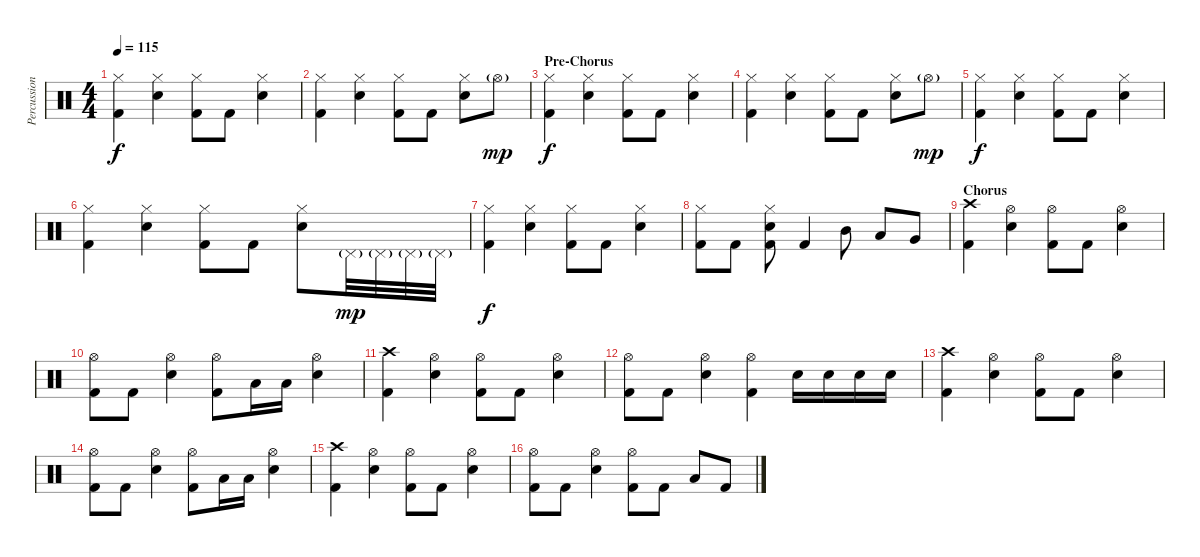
\track ("Percussion" "Percussion") {instrument percussion}
\staff {score}
\articulation defaults
\ts (4 4)
\tempo 115
\clef neutral
\ks c
("Hi-Hat (closed)" "Kick (hit) 2").4{dy f} ("Hi-Hat (closed)" "Snare (hit) 2").4 ("Hi-Hat (closed)" "Kick (hit) 2").8 "Kick (hit) 2".8 ("Hi-Hat (closed)" "Snare (hit) 2").4 |
("Hi-Hat (closed)" "Kick (hit) 2").4 ("Hi-Hat (closed)" "Snare (hit) 2").4 ("Hi-Hat (closed)" "Kick (hit) 2").8 "Kick (hit) 2".8 ("Hi-Hat (closed)" "Snare (hit) 2").8 "Hi-Hat (open)"{g}.8{dy mp} |
\section ("" "Pre-Chorus")
("Hi-Hat (closed)" "Kick (hit) 2").4{dy f} ("Hi-Hat (closed)" "Snare (hit) 2").4 ("Hi-Hat (closed)" "Kick (hit) 2").8 "Kick (hit) 2".8 ("Hi-Hat (closed)" "Snare (hit) 2").4 |
("Hi-Hat (closed)" "Kick (hit) 2").4 ("Hi-Hat (closed)" "Snare (hit) 2").4 ("Hi-Hat (closed)" "Kick (hit) 2").8 "Kick (hit) 2".8 ("Hi-Hat (closed)" "Snare (hit) 2").8 "Hi-Hat (open)"{g}.8{dy mp} |
("Hi-Hat (closed)" "Kick (hit) 2").4{dy f} ("Hi-Hat (closed)" "Snare (hit) 2").4 ("Hi-Hat (closed)" "Kick (hit) 2").8 "Kick (hit) 2".8 ("Hi-Hat (closed)" "Snare (hit) 2").4 |
("Hi-Hat (closed)" "Kick (hit) 2").4 ("Hi-Hat (closed)" "Snare (hit) 2").4 ("Hi-Hat (closed)" "Kick (hit) 2").8 "Kick (hit) 2".8 ("Hi-Hat (closed)" "Snare (hit) 2").8 "Pedal Hi-Hat (hit)"{g}.32{dy mp} "Pedal Hi-Hat (hit)"{g}.32 "Pedal Hi-Hat (hit)"{g}.32 "Pedal Hi-Hat (hit)"{g}.32 |
("Hi-Hat (closed)" "Kick (hit) 2").4{dy f} ("Hi-Hat (closed)" "Snare (hit) 2").4 ("Hi-Hat (closed)" "Kick (hit) 2").8 "Kick (hit) 2".8 ("Hi-Hat (closed)" "Snare (hit) 2").4 |
("Hi-Hat (closed)" "Kick (hit) 2").8 "Kick (hit) 2".8 ("Hi-Hat (closed)" "Snare (hit) 2" "Kick (hit) 2").8 "Kick (hit) 2".4 "Mid Tom (hit)".8 "Low Tom (hit)".8 "Very Low Tom (hit)".8 |
\section ("" "Chorus")
("Crash high (hit)" "Kick (hit) 2").4 ("Hi-Hat (open)" "Snare (hit) 2").4 ("Hi-Hat (open)" "Kick (hit) 2").8 "Kick (hit) 2".8 ("Hi-Hat (open)" "Snare (hit) 2").4 |
("Hi-Hat (open)" "Kick (hit) 2").8 "Kick (hit) 2".8 ("Hi-Hat (open)" "Snare (hit) 2").4 ("Hi-Hat (open)" "Kick (hit) 2").8 "Low Tom (hit)".16 "Low Tom (hit)".16 ("Hi-Hat (open)" "Snare (hit) 2").4 |
("Crash high (hit)" "Kick (hit) 2").4 ("Hi-Hat (open)" "Snare (hit) 2").4 ("Hi-Hat (open)" "Kick (hit) 2").8 "Kick (hit) 2".8 ("Hi-Hat (open)" "Snare (hit) 2").4 |
("Hi-Hat (open)" "Kick (hit) 2").8 "Kick (hit) 2".8 ("Hi-Hat (open)" "Snare (hit) 2").4 ("Hi-Hat (open)" "Kick (hit) 2").4 "Snare (hit) 2".16 "Snare (hit) 2".16 "Snare (hit) 2".16 "Snare (hit) 2".16 |
("Crash high (hit)" "Kick (hit) 2").4 ("Hi-Hat (open)" "Snare (hit) 2").4 ("Hi-Hat (open)" "Kick (hit) 2").8 "Kick (hit) 2".8 ("Hi-Hat (open)" "Snare (hit) 2").4 |
("Hi-Hat (open)" "Kick (hit) 2").8 "Kick (hit) 2".8 ("Hi-Hat (open)" "Snare (hit) 2").4 ("Hi-Hat (open)" "Kick (hit) 2").8 "Low Tom (hit)".16 "Low Tom (hit)".16 ("Hi-Hat (open)" "Snare (hit) 2").4 |
("Crash high (hit)" "Kick (hit) 2").4 ("Hi-Hat (open)" "Snare (hit) 2").4 ("Hi-Hat (open)" "Kick (hit) 2").8 "Kick (hit) 2".8 ("Hi-Hat (open)" "Snare (hit) 2").4 |
("Hi-Hat (open)" "Kick (hit) 2").8 "Kick (hit) 2".8 ("Hi-Hat (open)" "Snare (hit) 2").4 ("Hi-Hat (open)" "Kick (hit) 2").8 "Kick (hit) 2".8 "Low Tom (hit)".8 "Kick (hit) 2".8
